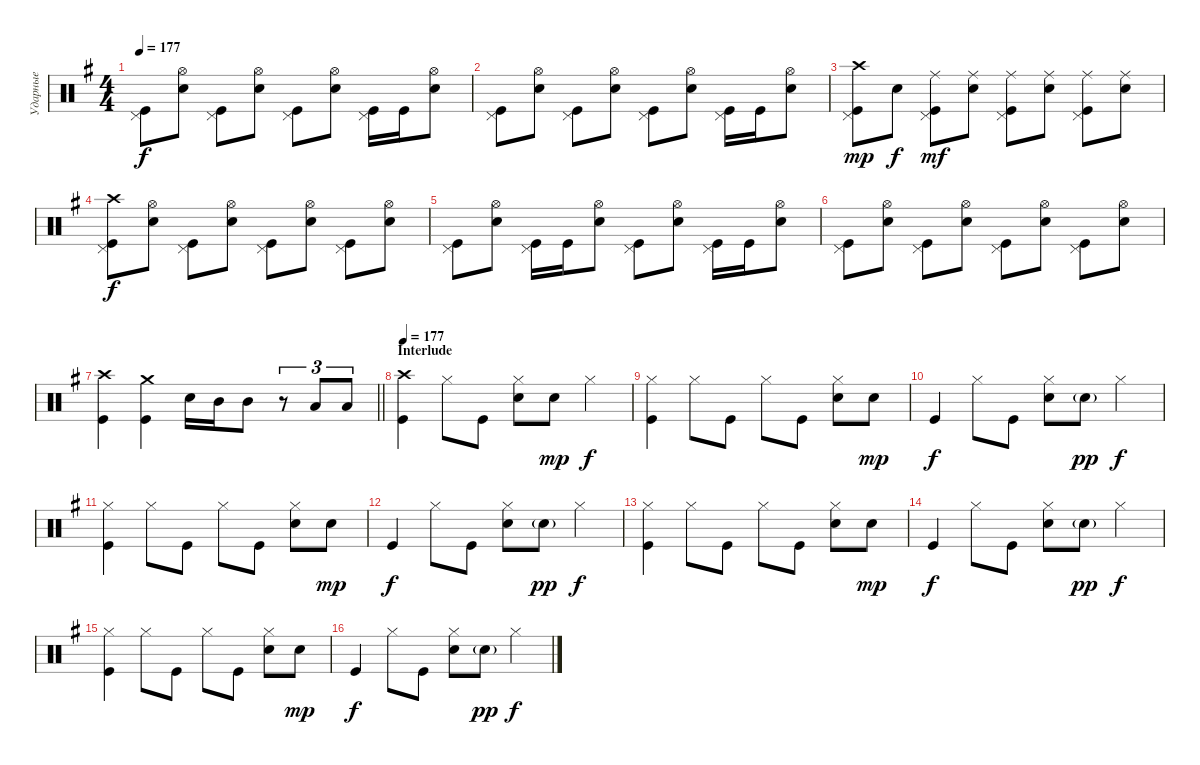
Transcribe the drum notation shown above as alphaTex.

\track ("Ударные" "Ударные") {instrument percussion}
\staff {score}
\articulation defaults
\ts (4 4)
\tempo 177
\clef neutral
\ks eminor
("Kick (hit)" "Pedal Hi-Hat (hit)").8{dy f} ("Hi-Hat (open)" "Snare (hit) 2").8 ("Kick (hit)" "Pedal Hi-Hat (hit)").8 ("Snare (hit) 2" "Hi-Hat (open)").8 ("Kick (hit)" "Pedal Hi-Hat (hit)").8 ("Hi-Hat (open)" "Snare (hit) 2").8 ("Kick (hit)" "Pedal Hi-Hat (hit)").16 "Kick (hit)".16 ("Snare (hit) 2" "Hi-Hat (open)").8 |
("Kick (hit)" "Pedal Hi-Hat (hit)").8 ("Hi-Hat (open)" "Snare (hit) 2").8 ("Kick (hit)" "Pedal Hi-Hat (hit)").8 ("Snare (hit) 2" "Hi-Hat (open)").8 ("Kick (hit)" "Pedal Hi-Hat (hit)").8 ("Hi-Hat (open)" "Snare (hit) 2").8 ("Kick (hit)" "Pedal Hi-Hat (hit)").16 "Kick (hit)".16 ("Snare (hit) 2" "Hi-Hat (open)").8 |
("Kick (hit)" "Crash high (hit)" "Pedal Hi-Hat (hit)").8{dy mp} "Snare (hit) 2".8{dy f} ("Kick (hit)" "Pedal Hi-Hat (hit)" "Ride (middle)").8{dy mf} ("Snare (hit) 2" "Ride (middle)").8 ("Kick (hit)" "Pedal Hi-Hat (hit)" "Ride (middle)").8 ("Ride (middle)" "Snare (hit) 2").8 ("Kick (hit)" "Pedal Hi-Hat (hit)" "Ride (middle)").8 ("Snare (hit) 2" "Ride (middle)").8 |
("Kick (hit)" "Crash high (hit)" "Pedal Hi-Hat (hit)").8{dy f} ("Hi-Hat (open)" "Snare (hit) 2").8 ("Kick (hit)" "Pedal Hi-Hat (hit)").8 ("Snare (hit) 2" "Hi-Hat (open)").8 ("Kick (hit)" "Pedal Hi-Hat (hit)").8 ("Hi-Hat (open)" "Snare (hit) 2").8 ("Kick (hit)" "Pedal Hi-Hat (hit)").8 ("Snare (hit) 2" "Hi-Hat (open)").8 |
("Kick (hit)" "Pedal Hi-Hat (hit)").8 ("Hi-Hat (open)" "Snare (hit) 2").8 ("Kick (hit)" "Pedal Hi-Hat (hit)").16 "Kick (hit)".16 ("Snare (hit) 2" "Hi-Hat (open)").8 ("Kick (hit)" "Pedal Hi-Hat (hit)").8 ("Hi-Hat (open)" "Snare (hit) 2").8 ("Kick (hit)" "Pedal Hi-Hat (hit)").16 "Kick (hit)".16 ("Snare (hit) 2" "Hi-Hat (open)").8 |
("Kick (hit)" "Pedal Hi-Hat (hit)").8 ("Hi-Hat (open)" "Snare (hit) 2").8 ("Kick (hit)" "Pedal Hi-Hat (hit)").8 ("Snare (hit) 2" "Hi-Hat (open)").8 ("Kick (hit)" "Pedal Hi-Hat (hit)").8 ("Hi-Hat (open)" "Snare (hit) 2").8 ("Kick (hit)" "Pedal Hi-Hat (hit)").8 ("Snare (hit) 2" "Hi-Hat (open)").8 |
\barLineRight lightlight
("Kick (hit)" "Crash high (hit)").4 ("Crash medium (hit)" "Kick (hit)").4 "Snare (hit) 2".16 "Mid Tom (hit)".16 "Mid Tom (hit)".8 r.8{tu (3 2)} "Low Tom (hit)".8{tu (3 2)} "Low Tom (hit)".8{tu (3 2)} |
\section ("" "Interlude")
\tempo 177
("Kick (hit)" "Crash high (hit)").4 "Hi-Hat (closed)".8 "Kick (hit)".8 ("Snare (hit) 2" "Hi-Hat (closed)").8 "Snare (hit) 2".8{dy mp} "Hi-Hat (closed)".4{dy f} |
("Kick (hit)" "Hi-Hat (closed)").4 "Hi-Hat (closed)".8 "Kick (hit)".8 "Hi-Hat (closed)".8 "Kick (hit)".8 ("Snare (hit) 2" "Hi-Hat (closed)").8 "Snare (hit) 2".8{dy mp} |
"Kick (hit)".4{dy f} "Hi-Hat (closed)".8 "Kick (hit)".8 ("Snare (hit) 2" "Hi-Hat (closed)").8 "Snare (hit) 2"{g}.8{dy pp} "Hi-Hat (closed)".4{dy f} |
("Kick (hit)" "Hi-Hat (closed)").4 "Hi-Hat (closed)".8 "Kick (hit)".8 "Hi-Hat (closed)".8 "Kick (hit)".8 ("Snare (hit) 2" "Hi-Hat (closed)").8 "Snare (hit) 2".8{dy mp} |
"Kick (hit)".4{dy f} "Hi-Hat (closed)".8 "Kick (hit)".8 ("Snare (hit) 2" "Hi-Hat (closed)").8 "Snare (hit) 2"{g}.8{dy pp} "Hi-Hat (closed)".4{dy f} |
("Kick (hit)" "Hi-Hat (closed)").4 "Hi-Hat (closed)".8 "Kick (hit)".8 "Hi-Hat (closed)".8 "Kick (hit)".8 ("Snare (hit) 2" "Hi-Hat (closed)").8 "Snare (hit) 2".8{dy mp} |
"Kick (hit)".4{dy f} "Hi-Hat (closed)".8 "Kick (hit)".8 ("Snare (hit) 2" "Hi-Hat (closed)").8 "Snare (hit) 2"{g}.8{dy pp} "Hi-Hat (closed)".4{dy f} |
("Kick (hit)" "Hi-Hat (closed)").4 "Hi-Hat (closed)".8 "Kick (hit)".8 "Hi-Hat (closed)".8 "Kick (hit)".8 ("Snare (hit) 2" "Hi-Hat (closed)").8 "Snare (hit) 2".8{dy mp} |
"Kick (hit)".4{dy f} "Hi-Hat (closed)".8 "Kick (hit)".8 ("Snare (hit) 2" "Hi-Hat (closed)").8 "Snare (hit) 2"{g}.8{dy pp} "Hi-Hat (closed)".4{dy f}
